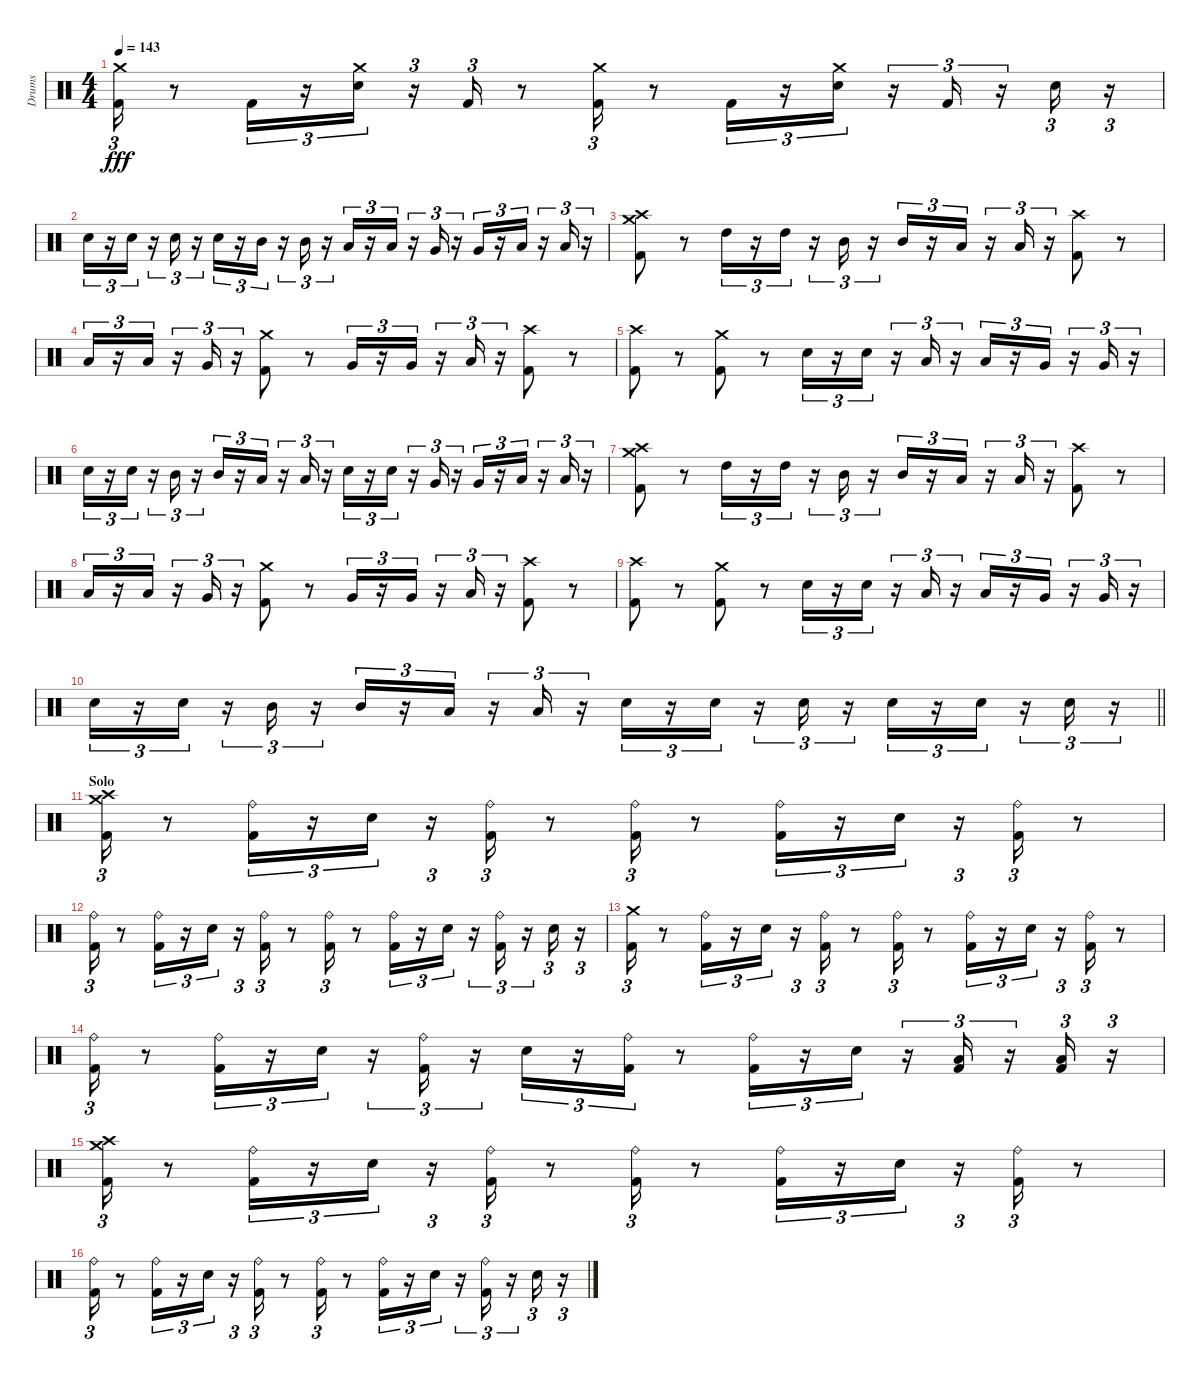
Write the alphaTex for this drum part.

\track ("Drums" "Drums") {instrument percussion}
\staff {score}
\articulation defaults
\ts (4 4)
\tempo 143
\clef neutral
\ks c
("Crash medium (hit)" "Kick (hit) 2").16{tu (3 2) dy fff} r.8 "Kick (hit) 2".16{tu (3 2)} r.16{tu (3 2)} ("Crash medium (hit)" "Snare (hit) 2").16{tu (3 2)} r.16{tu (3 2)} "Kick (hit) 2".16{tu (3 2)} r.8 ("Crash medium (hit)" "Kick (hit) 2").16{tu (3 2)} r.8 "Kick (hit) 2".16{tu (3 2)} r.16{tu (3 2)} ("Crash medium (hit)" "Snare (hit) 2").16{tu (3 2)} r.16{tu (3 2)} "Kick (hit) 2".16{tu (3 2)} r.16{tu (3 2)} "Snare (hit) 2".16{tu (3 2)} r.16{tu (3 2)} |
"Snare (hit) 2".16{tu (3 2)} r.16{tu (3 2)} "Snare (hit) 2".16{tu (3 2)} r.16{tu (3 2)} "Snare (hit) 2".16{tu (3 2)} r.16{tu (3 2)} "Snare (hit) 2".16{tu (3 2)} r.16{tu (3 2)} "Mid Tom (hit)".16{tu (3 2)} r.16{tu (3 2)} "Mid Tom (hit)".16{tu (3 2)} r.16{tu (3 2)} "Low Tom (hit)".16{tu (3 2)} r.16{tu (3 2)} "Low Tom (hit)".16{tu (3 2)} r.16{tu (3 2)} "Very Low Tom (hit)".16{tu (3 2)} r.16{tu (3 2)} "Very Low Tom (hit)".16{tu (3 2)} r.16{tu (3 2)} "Low Floor Tom (hit)".16{tu (3 2)} r.16{tu (3 2)} "Low Floor Tom (hit)".16{tu (3 2)} r.16{tu (3 2)} |
("Crash medium (hit)" "Crash high (hit)" "Kick (hit) 2").8 r.8 "High Tom (hit)".16{tu (3 2)} r.16{tu (3 2)} "High Tom (hit)".16{tu (3 2)} r.16{tu (3 2)} "Mid Tom (hit)".16{tu (3 2)} r.16{tu (3 2)} "Mid Tom (hit)".16{tu (3 2)} r.16{tu (3 2)} "Low Tom (hit)".16{tu (3 2)} r.16{tu (3 2)} "Low Tom (hit)".16{tu (3 2)} r.16{tu (3 2)} ("Crash high (hit)" "Kick (hit) 2").8 r.8 |
"Low Tom (hit)".16{tu (3 2)} r.16{tu (3 2)} "Low Tom (hit)".16{tu (3 2)} r.16{tu (3 2)} "Very Low Tom (hit)".16{tu (3 2)} r.16{tu (3 2)} ("Crash medium (hit)" "Kick (hit) 2").8 r.8 "Very Low Tom (hit)".16{tu (3 2)} r.16{tu (3 2)} "Very Low Tom (hit)".16{tu (3 2)} r.16{tu (3 2)} "Low Floor Tom (hit)".16{tu (3 2)} r.16{tu (3 2)} ("Crash high (hit)" "Kick (hit) 2").8 r.8 |
("Crash high (hit)" "Kick (hit) 2").8 r.8 ("Crash medium (hit)" "Kick (hit) 2").8 r.8 "Snare (hit) 2".16{tu (3 2)} r.16{tu (3 2)} "Snare (hit) 2".16{tu (3 2)} r.16{tu (3 2)} "Low Tom (hit)".16{tu (3 2)} r.16{tu (3 2)} "Low Tom (hit)".16{tu (3 2)} r.16{tu (3 2)} "Very Low Tom (hit)".16{tu (3 2)} r.16{tu (3 2)} "Very Low Tom (hit)".16{tu (3 2)} r.16{tu (3 2)} |
"Snare (hit) 2".16{tu (3 2)} r.16{tu (3 2)} "Snare (hit) 2".16{tu (3 2)} r.16{tu (3 2)} "Mid Tom (hit)".16{tu (3 2)} r.16{tu (3 2)} "Mid Tom (hit)".16{tu (3 2)} r.16{tu (3 2)} "Low Tom (hit)".16{tu (3 2)} r.16{tu (3 2)} "Low Tom (hit)".16{tu (3 2)} r.16{tu (3 2)} "Snare (hit) 2".16{tu (3 2)} r.16{tu (3 2)} "Snare (hit) 2".16{tu (3 2)} r.16{tu (3 2)} "Very Low Tom (hit)".16{tu (3 2)} r.16{tu (3 2)} "Very Low Tom (hit)".16{tu (3 2)} r.16{tu (3 2)} "Low Floor Tom (hit)".16{tu (3 2)} r.16{tu (3 2)} "Low Floor Tom (hit)".16{tu (3 2)} r.16{tu (3 2)} |
("Crash medium (hit)" "Crash high (hit)" "Kick (hit) 2").8 r.8 "High Tom (hit)".16{tu (3 2)} r.16{tu (3 2)} "High Tom (hit)".16{tu (3 2)} r.16{tu (3 2)} "Mid Tom (hit)".16{tu (3 2)} r.16{tu (3 2)} "Mid Tom (hit)".16{tu (3 2)} r.16{tu (3 2)} "Low Tom (hit)".16{tu (3 2)} r.16{tu (3 2)} "Low Tom (hit)".16{tu (3 2)} r.16{tu (3 2)} ("Crash high (hit)" "Kick (hit) 2").8 r.8 |
"Low Tom (hit)".16{tu (3 2)} r.16{tu (3 2)} "Low Tom (hit)".16{tu (3 2)} r.16{tu (3 2)} "Very Low Tom (hit)".16{tu (3 2)} r.16{tu (3 2)} ("Crash medium (hit)" "Kick (hit) 2").8 r.8 "Very Low Tom (hit)".16{tu (3 2)} r.16{tu (3 2)} "Very Low Tom (hit)".16{tu (3 2)} r.16{tu (3 2)} "Low Floor Tom (hit)".16{tu (3 2)} r.16{tu (3 2)} ("Crash high (hit)" "Kick (hit) 2").8 r.8 |
("Crash high (hit)" "Kick (hit) 2").8 r.8 ("Crash medium (hit)" "Kick (hit) 2").8 r.8 "Snare (hit) 2".16{tu (3 2)} r.16{tu (3 2)} "Snare (hit) 2".16{tu (3 2)} r.16{tu (3 2)} "Low Tom (hit)".16{tu (3 2)} r.16{tu (3 2)} "Low Tom (hit)".16{tu (3 2)} r.16{tu (3 2)} "Very Low Tom (hit)".16{tu (3 2)} r.16{tu (3 2)} "Very Low Tom (hit)".16{tu (3 2)} r.16{tu (3 2)} |
\barLineRight lightlight "Snare (hit) 2".16{tu (3 2)}
r.16{tu (3 2)} "Snare (hit) 2".16{tu (3 2)} r.16{tu (3 2)} "Mid Tom (hit)".16{tu (3 2)} r.16{tu (3 2)} "Mid Tom (hit)".16{tu (3 2)} r.16{tu (3 2)} "Low Tom (hit)".16{tu (3 2)} r.16{tu (3 2)} "Low Tom (hit)".16{tu (3 2)} r.16{tu (3 2)} "Snare (hit) 2".16{tu (3 2)} r.16{tu (3 2)} "Snare (hit) 2".16{tu (3 2)} r.16{tu (3 2)} "Snare (hit) 2".16{tu (3 2)} r.16{tu (3 2)} "Snare (hit) 2".16{tu (3 2)} r.16{tu (3 2)} "Snare (hit) 2".16{tu (3 2)} r.16{tu (3 2)} "Snare (hit) 2".16{tu (3 2)} r.16{tu (3 2)} |
\section ("" "Solo")
("Crash high (hit)" "Crash medium (hit)" "Kick (hit) 2").16{tu (3 2)} r.8 ("Ride (bell)" "Kick (hit) 2").16{tu (3 2)} r.16{tu (3 2)} "Snare (hit) 2".16{tu (3 2)} r.16{tu (3 2)} ("Ride (bell)" "Kick (hit) 2").16{tu (3 2)} r.8 ("Ride (bell)" "Kick (hit) 2").16{tu (3 2)} r.8 ("Ride (bell)" "Kick (hit) 2").16{tu (3 2)} r.16{tu (3 2)} "Snare (hit) 2".16{tu (3 2)} r.16{tu (3 2)} ("Ride (bell)" "Kick (hit) 2").16{tu (3 2)} r.8 |
("Ride (bell)" "Kick (hit) 2").16{tu (3 2)} r.8 ("Ride (bell)" "Kick (hit) 2").16{tu (3 2)} r.16{tu (3 2)} "Snare (hit) 2".16{tu (3 2)} r.16{tu (3 2)} ("Ride (bell)" "Kick (hit) 2").16{tu (3 2)} r.8 ("Ride (bell)" "Kick (hit) 2").16{tu (3 2)} r.8 ("Ride (bell)" "Kick (hit) 2").16{tu (3 2)} r.16{tu (3 2)} "Snare (hit) 2".16{tu (3 2)} r.16{tu (3 2)} ("Ride (bell)" "Kick (hit) 2").16{tu (3 2)} r.16{tu (3 2)} "Snare (hit) 2".16{tu (3 2)} r.16{tu (3 2)} |
("Crash medium (hit)" "Kick (hit) 2").16{tu (3 2)} r.8 ("Ride (bell)" "Kick (hit) 2").16{tu (3 2)} r.16{tu (3 2)} "Snare (hit) 2".16{tu (3 2)} r.16{tu (3 2)} ("Ride (bell)" "Kick (hit) 2").16{tu (3 2)} r.8 ("Ride (bell)" "Kick (hit) 2").16{tu (3 2)} r.8 ("Ride (bell)" "Kick (hit) 2").16{tu (3 2)} r.16{tu (3 2)} "Snare (hit) 2".16{tu (3 2)} r.16{tu (3 2)} ("Ride (bell)" "Kick (hit) 2").16{tu (3 2)} r.8 |
("Ride (bell)" "Kick (hit) 2").16{tu (3 2)} r.8 ("Ride (bell)" "Kick (hit) 2").16{tu (3 2)} r.16{tu (3 2)} "Snare (hit) 2".16{tu (3 2)} r.16{tu (3 2)} ("Ride (bell)" "Kick (hit) 2").16{tu (3 2)} r.16{tu (3 2)} "Snare (hit) 2".16{tu (3 2)} r.16{tu (3 2)} ("Ride (bell)" "Kick (hit) 2").16{tu (3 2)} r.8 ("Ride (bell)" "Kick (hit) 2").16{tu (3 2)} r.16{tu (3 2)} "Snare (hit) 2".16{tu (3 2)} r.16{tu (3 2)} ("Low Floor Tom (hit)" "Kick (hit) 2").16{tu (3 2)} r.16{tu (3 2)} ("Kick (hit) 2" "Low Floor Tom (hit)").16{tu (3 2)} r.16{tu (3 2)} |
("Crash high (hit)" "Crash medium (hit)" "Kick (hit) 2").16{tu (3 2)} r.8 ("Ride (bell)" "Kick (hit) 2").16{tu (3 2)} r.16{tu (3 2)} "Snare (hit) 2".16{tu (3 2)} r.16{tu (3 2)} ("Ride (bell)" "Kick (hit) 2").16{tu (3 2)} r.8 ("Ride (bell)" "Kick (hit) 2").16{tu (3 2)} r.8 ("Ride (bell)" "Kick (hit) 2").16{tu (3 2)} r.16{tu (3 2)} "Snare (hit) 2".16{tu (3 2)} r.16{tu (3 2)} ("Ride (bell)" "Kick (hit) 2").16{tu (3 2)} r.8 |
("Ride (bell)" "Kick (hit) 2").16{tu (3 2)} r.8 ("Ride (bell)" "Kick (hit) 2").16{tu (3 2)} r.16{tu (3 2)} "Snare (hit) 2".16{tu (3 2)} r.16{tu (3 2)} ("Ride (bell)" "Kick (hit) 2").16{tu (3 2)} r.8 ("Ride (bell)" "Kick (hit) 2").16{tu (3 2)} r.8 ("Ride (bell)" "Kick (hit) 2").16{tu (3 2)} r.16{tu (3 2)} "Snare (hit) 2".16{tu (3 2)} r.16{tu (3 2)} ("Ride (bell)" "Kick (hit) 2").16{tu (3 2)} r.16{tu (3 2)} "Snare (hit) 2".16{tu (3 2)} r.16{tu (3 2)}
